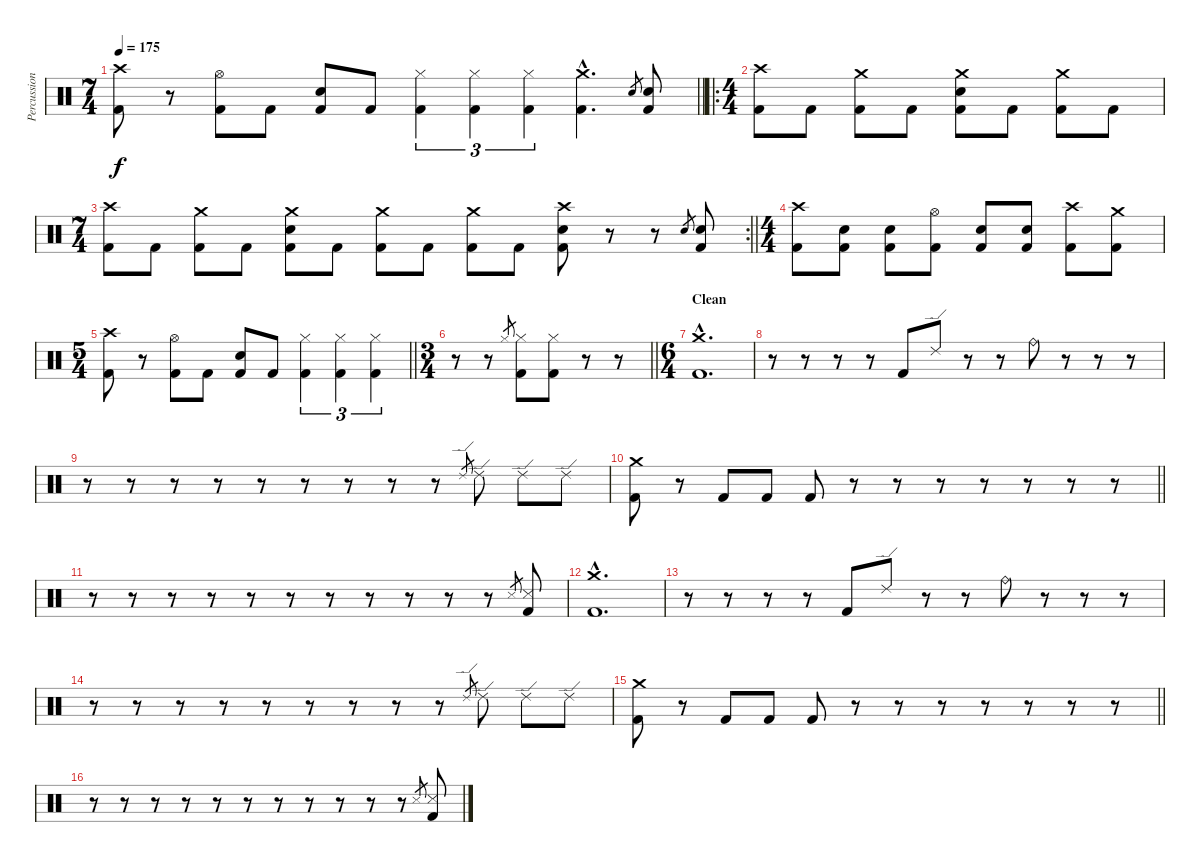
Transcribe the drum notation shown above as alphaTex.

\track ("Percussion" "Percussion") {instrument percussion}
\staff {score}
\articulation defaults
\ts (7 4)
\tempo 175
\clef neutral
\barLineRight lightlight
\ks c
("Crash high (hit)" "Kick (hit) 2").8{dy f} r.8 ("Hi-Hat (open)" "Kick (hit) 2").8 "Kick (hit) 2".8 ("Electric Snare (hit)" "Kick (hit) 2").8 "Kick (hit) 2".8 ("Hi-Hat (closed)" "Kick (hit) 2").4{tu (3 2)} ("Hi-Hat (closed)" "Kick (hit) 2").4{tu (3 2)} ("Hi-Hat (closed)" "Kick (hit) 2").4{tu (3 2)} ("Crash medium (hit)"{hac} "Kick (hit) 2"{hac}).4{d} "Electric Snare (hit)".8{gr} ("Electric Snare (hit)" "Kick (hit) 2").8 |
\ro
\ts (4 4)
("Crash high (hit)" "Kick (hit) 2").8 "Kick (hit) 2".8 ("Crash medium (hit)" "Kick (hit) 2").8 "Kick (hit) 2".8 ("Crash medium (hit)" "Electric Snare (hit)" "Kick (hit) 2").8 "Kick (hit) 2".8 ("Crash medium (hit)" "Kick (hit) 2").8 "Kick (hit) 2".8 |
\rc 2
\ts (7 4)
\barLineRight lightlight
("Crash high (hit)" "Kick (hit) 2").8 "Kick (hit) 2".8 ("Crash medium (hit)" "Kick (hit) 2").8 "Kick (hit) 2".8 ("Crash medium (hit)" "Electric Snare (hit)" "Kick (hit) 2").8 "Kick (hit) 2".8 ("Crash medium (hit)" "Kick (hit) 2").8 "Kick (hit) 2".8 ("Crash medium (hit)" "Kick (hit) 2").8 "Kick (hit) 2".8 ("Crash high (hit)" "Electric Snare (hit)" "Kick (hit) 2").8 r.8 r.8 "Electric Snare (hit)".8{gr} ("Electric Snare (hit)" "Kick (hit) 2").8 |
\ts (4 4)
("Crash high (hit)" "Kick (hit) 2").8 ("Electric Snare (hit)" "Kick (hit) 2").8 ("Electric Snare (hit)" "Kick (hit) 2").8 ("Hi-Hat (open)" "Kick (hit) 2").8 ("Electric Snare (hit)" "Kick (hit) 2").8 ("Electric Snare (hit)" "Kick (hit) 2").8 ("Crash high (hit)" "Kick (hit) 2").8 ("Crash medium (hit)" "Kick (hit) 2").8 |
\ts (5 4)
\barLineRight lightlight
("Crash high (hit)" "Kick (hit) 2").8 r.8 ("Hi-Hat (open)" "Kick (hit) 2").8 "Kick (hit) 2".8 ("Electric Snare (hit)" "Kick (hit) 2").8 "Kick (hit) 2".8 ("Hi-Hat (closed)" "Kick (hit) 2").4{tu (3 2)} ("Hi-Hat (closed)" "Kick (hit) 2").4{tu (3 2)} ("Hi-Hat (closed)" "Kick (hit) 2").4{tu (3 2)} |
\ts (3 4)
\barLineRight lightlight
r.8 r.8 "Hi-Hat (closed)".8{gr} ("Hi-Hat (closed)" "Kick (hit) 2").8 ("Hi-Hat (closed)" "Kick (hit) 2").8 r.8 r.8 |
\ts (6 4)
\section ("" "Clean")
("Crash medium (hit)"{hac} "Kick (hit) 2"{hac}).1{d} |
r.8 r.8 r.8 r.8 "Kick (hit) 2".8 "Ride (edge) 2".8 r.8 r.8 "Ride (bell)".8 r.8 r.8 r.8 |
r.8 r.8 r.8 r.8 r.8 r.8 r.8 r.8 r.8 "Ride (edge) 2".8{gr} "Ride (edge) 2".8 "Ride (edge) 2".8 "Ride (edge) 2".8 |
\barLineRight lightlight
("Crash medium (hit)" "Kick (hit) 2").8 r.8 "Kick (hit) 2".8 "Kick (hit) 2".8 "Kick (hit) 2".8 r.8 r.8 r.8 r.8 r.8 r.8 r.8 |
r.8 r.8 r.8 r.8 r.8 r.8 r.8 r.8 r.8 r.8 r.8 "Snare (side stick) 3".8{gr} ("Snare (side stick) 3" "Kick (hit) 2").8 |
("Crash medium (hit)"{hac} "Kick (hit) 2"{hac}).1{d} |
r.8 r.8 r.8 r.8 "Kick (hit) 2".8 "Ride (edge) 2".8 r.8 r.8 "Ride (bell)".8 r.8 r.8 r.8 |
r.8 r.8 r.8 r.8 r.8 r.8 r.8 r.8 r.8 "Ride (edge) 2".8{gr} "Ride (edge) 2".8 "Ride (edge) 2".8 "Ride (edge) 2".8 |
\barLineRight lightlight
("Crash medium (hit)" "Kick (hit) 2").8 r.8 "Kick (hit) 2".8 "Kick (hit) 2".8 "Kick (hit) 2".8 r.8 r.8 r.8 r.8 r.8 r.8 r.8 |
r.8 r.8 r.8 r.8 r.8 r.8 r.8 r.8 r.8 r.8 r.8 "Snare (side stick) 3".8{gr} ("Snare (side stick) 3" "Kick (hit) 2").8
